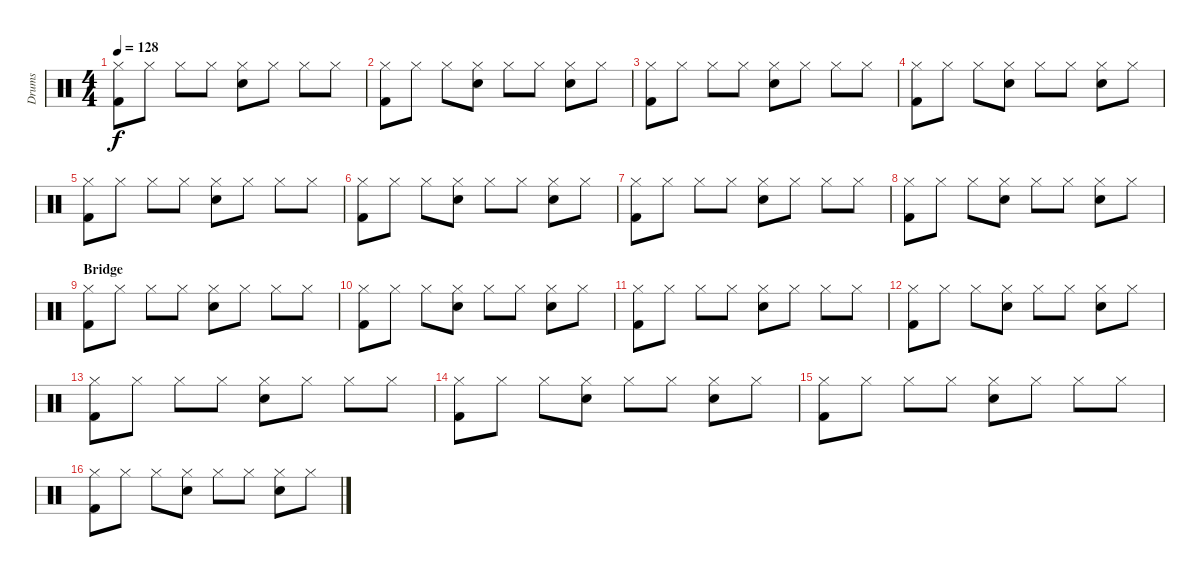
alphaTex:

\track ("Drums" "Drums") {instrument percussion}
\staff {score}
\articulation defaults
\ts (4 4)
\tempo 128
\clef neutral
\ks c
("Hi-Hat (closed)" "Kick (hit) 2").8{dy f} "Hi-Hat (closed)".8 "Hi-Hat (closed)".8 "Hi-Hat (closed)".8 ("Hi-Hat (closed)" "Snare (hit) 2").8 "Hi-Hat (closed)".8 "Hi-Hat (closed)".8 "Hi-Hat (closed)".8 |
("Hi-Hat (closed)" "Kick (hit) 2").8 "Hi-Hat (closed)".8 "Hi-Hat (closed)".8 ("Hi-Hat (closed)" "Snare (hit) 2").8 "Hi-Hat (closed)".8 "Hi-Hat (closed)".8 ("Hi-Hat (closed)" "Snare (hit) 2").8 "Hi-Hat (closed)".8 |
("Hi-Hat (closed)" "Kick (hit) 2").8 "Hi-Hat (closed)".8 "Hi-Hat (closed)".8 "Hi-Hat (closed)".8 ("Hi-Hat (closed)" "Snare (hit) 2").8 "Hi-Hat (closed)".8 "Hi-Hat (closed)".8 "Hi-Hat (closed)".8 |
("Hi-Hat (closed)" "Kick (hit) 2").8 "Hi-Hat (closed)".8 "Hi-Hat (closed)".8 ("Hi-Hat (closed)" "Snare (hit) 2").8 "Hi-Hat (closed)".8 "Hi-Hat (closed)".8 ("Hi-Hat (closed)" "Snare (hit) 2").8 "Hi-Hat (closed)".8 |
("Hi-Hat (closed)" "Kick (hit) 2").8 "Hi-Hat (closed)".8 "Hi-Hat (closed)".8 "Hi-Hat (closed)".8 ("Hi-Hat (closed)" "Snare (hit) 2").8 "Hi-Hat (closed)".8 "Hi-Hat (closed)".8 "Hi-Hat (closed)".8 |
("Hi-Hat (closed)" "Kick (hit) 2").8 "Hi-Hat (closed)".8 "Hi-Hat (closed)".8 ("Hi-Hat (closed)" "Snare (hit) 2").8 "Hi-Hat (closed)".8 "Hi-Hat (closed)".8 ("Hi-Hat (closed)" "Snare (hit) 2").8 "Hi-Hat (closed)".8 |
("Hi-Hat (closed)" "Kick (hit) 2").8 "Hi-Hat (closed)".8 "Hi-Hat (closed)".8 "Hi-Hat (closed)".8 ("Hi-Hat (closed)" "Snare (hit) 2").8 "Hi-Hat (closed)".8 "Hi-Hat (closed)".8 "Hi-Hat (closed)".8 |
("Hi-Hat (closed)" "Kick (hit) 2").8 "Hi-Hat (closed)".8 "Hi-Hat (closed)".8 ("Hi-Hat (closed)" "Snare (hit) 2").8 "Hi-Hat (closed)".8 "Hi-Hat (closed)".8 ("Hi-Hat (closed)" "Snare (hit) 2").8 "Hi-Hat (closed)".8 |
\section ("" "Bridge")
("Hi-Hat (closed)" "Kick (hit) 2").8 "Hi-Hat (closed)".8 "Hi-Hat (closed)".8 "Hi-Hat (closed)".8 ("Hi-Hat (closed)" "Snare (hit) 2").8 "Hi-Hat (closed)".8 "Hi-Hat (closed)".8 "Hi-Hat (closed)".8 |
("Hi-Hat (closed)" "Kick (hit) 2").8 "Hi-Hat (closed)".8 "Hi-Hat (closed)".8 ("Hi-Hat (closed)" "Snare (hit) 2").8 "Hi-Hat (closed)".8 "Hi-Hat (closed)".8 ("Hi-Hat (closed)" "Snare (hit) 2").8 "Hi-Hat (closed)".8 |
("Hi-Hat (closed)" "Kick (hit) 2").8 "Hi-Hat (closed)".8 "Hi-Hat (closed)".8 "Hi-Hat (closed)".8 ("Hi-Hat (closed)" "Snare (hit) 2").8 "Hi-Hat (closed)".8 "Hi-Hat (closed)".8 "Hi-Hat (closed)".8 |
("Hi-Hat (closed)" "Kick (hit) 2").8 "Hi-Hat (closed)".8 "Hi-Hat (closed)".8 ("Hi-Hat (closed)" "Snare (hit) 2").8 "Hi-Hat (closed)".8 "Hi-Hat (closed)".8 ("Hi-Hat (closed)" "Snare (hit) 2").8 "Hi-Hat (closed)".8 |
("Hi-Hat (closed)" "Kick (hit) 2").8 "Hi-Hat (closed)".8 "Hi-Hat (closed)".8 "Hi-Hat (closed)".8 ("Hi-Hat (closed)" "Snare (hit) 2").8 "Hi-Hat (closed)".8 "Hi-Hat (closed)".8 "Hi-Hat (closed)".8 |
("Hi-Hat (closed)" "Kick (hit) 2").8 "Hi-Hat (closed)".8 "Hi-Hat (closed)".8 ("Hi-Hat (closed)" "Snare (hit) 2").8 "Hi-Hat (closed)".8 "Hi-Hat (closed)".8 ("Hi-Hat (closed)" "Snare (hit) 2").8 "Hi-Hat (closed)".8 |
("Hi-Hat (closed)" "Kick (hit) 2").8 "Hi-Hat (closed)".8 "Hi-Hat (closed)".8 "Hi-Hat (closed)".8 ("Hi-Hat (closed)" "Snare (hit) 2").8 "Hi-Hat (closed)".8 "Hi-Hat (closed)".8 "Hi-Hat (closed)".8 |
("Hi-Hat (closed)" "Kick (hit) 2").8 "Hi-Hat (closed)".8 "Hi-Hat (closed)".8 ("Hi-Hat (closed)" "Snare (hit) 2").8 "Hi-Hat (closed)".8 "Hi-Hat (closed)".8 ("Hi-Hat (closed)" "Snare (hit) 2").8 "Hi-Hat (closed)".8
